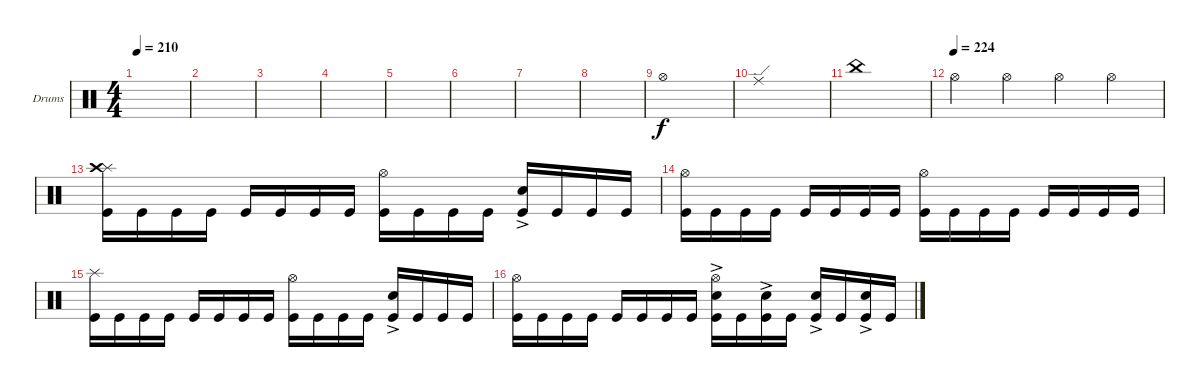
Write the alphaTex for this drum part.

\defaultSystemsLayout 4
\bracketExtendMode groupsimilarinstruments
\firstSystemTrackNameOrientation horizontal
\otherSystemsTrackNameOrientation horizontal
\track ("Drumkit" "Drums") {instrument percussion}
\staff {score}
\articulation defaults
\ts (4 4)
\tempo 210
\clef neutral
\scale
0.333333
\ks c
|
\scale
0.333333 |
\scale
0.333333 |
\scale
0.333333 |
\scale
0.333333 |
\scale
0.333333 |
\scale
0.333333 |
\scale
0.333333 |
\scale
0.333333 "Hi-Hat (open)".1 |
\scale
0.333333 "Ride (edge)".1 |
\scale
0.333333 "China (hit)".1 |
\tempo 224
\scale
0.333333 "Hi-Hat (open)".4{dy f} "Hi-Hat (open)".4 "Hi-Hat (open)".4 "Hi-Hat (open)".4 |
\scale
0.333333 ("Splash (hit)" "Crash high (hit)" "Kick (hit)").16 "Kick (hit)".16 "Kick (hit)".16 "Kick (hit)".16 "Kick (hit)".16 "Kick (hit)".16 "Kick (hit)".16 "Kick (hit)".16 ("Kick (hit)" "Hi-Hat (open)").16 "Kick (hit)".16 "Kick (hit)".16 "Kick (hit)".16 ("Kick (hit)" "Snare (hit) 2"{ac}).16 "Kick (hit)".16 "Kick (hit)".16 "Kick (hit)".16 |
\scale
0.333333 ("Hi-Hat (open)" "Kick (hit)").16 "Kick (hit)".16 "Kick (hit)".16 "Kick (hit)".16 "Kick (hit)".16 "Kick (hit)".16 "Kick (hit)".16 "Kick (hit)".16 ("Kick (hit)" "Hi-Hat (open)").16 "Kick (hit)".16 "Kick (hit)".16 "Kick (hit)".16 "Kick (hit)".16 "Kick (hit)".16 "Kick (hit)".16 "Kick (hit)".16 |
\scale
0.333333 ("Splash (hit)" "Kick (hit)").16 "Kick (hit)".16 "Kick (hit)".16 "Kick (hit)".16 "Kick (hit)".16 "Kick (hit)".16 "Kick (hit)".16 "Kick (hit)".16 ("Kick (hit)" "Hi-Hat (open)").16 "Kick (hit)".16 "Kick (hit)".16 "Kick (hit)".16 ("Kick (hit)" "Snare (hit) 2"{ac}).16 "Kick (hit)".16 "Kick (hit)".16 "Kick (hit)".16 |
\scale
0.333333 ("Hi-Hat (open)" "Kick (hit)").16 "Kick (hit)".16 "Kick (hit)".16 "Kick (hit)".16 "Kick (hit)".16 "Kick (hit)".16 "Kick (hit)".16 "Kick (hit)".16 ("Kick (hit)" "Hi-Hat (open)" "Snare (hit) 2"{ac}).16 "Kick (hit)".16 ("Kick (hit)" "Snare (hit) 2"{ac}).16 "Kick (hit)".16 ("Kick (hit)" "Snare (hit) 2"{ac}).16 "Kick (hit)".16 ("Kick (hit)" "Snare (hit) 2"{ac}).16 "Kick (hit)".16
